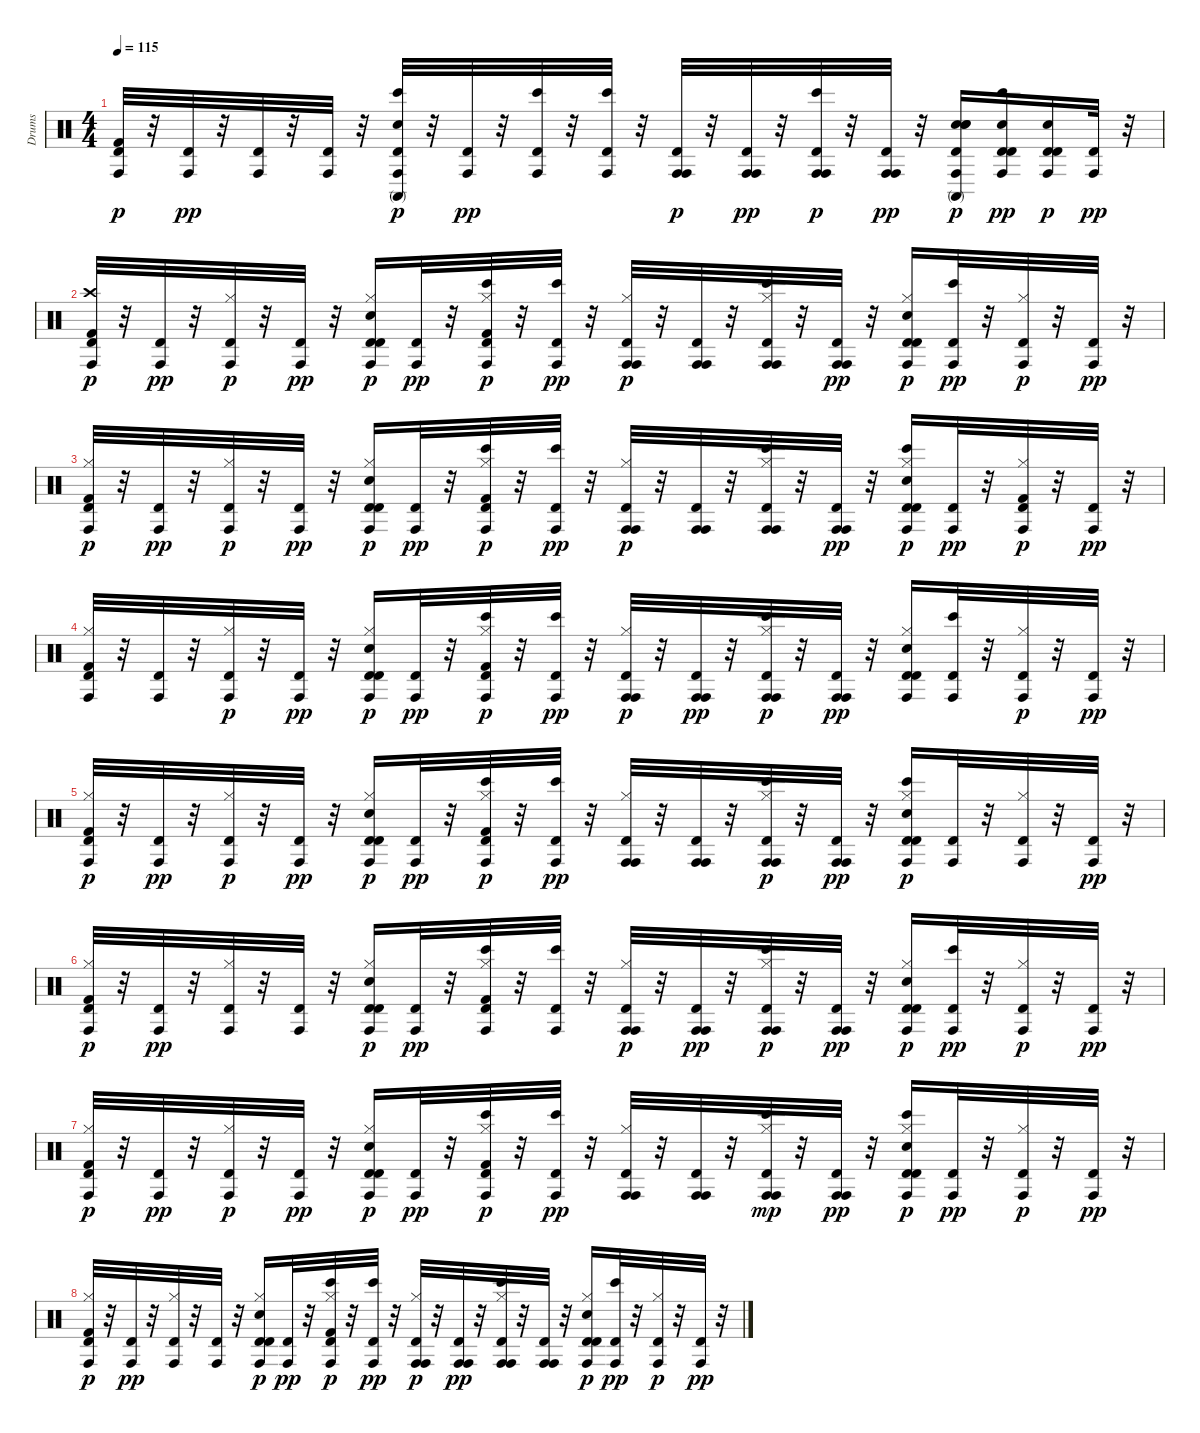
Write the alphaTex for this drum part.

\track ("Drums" "Drums") {instrument percussion}
\staff {score}
\articulation defaults
\ts (4 4)
\tempo 115
\clef neutral
\ks c
("Conga high (hit)" "Kick (hit) 2" "Timbale high (hit)").32{dy p} r.32 ("Conga high (hit)" "Timbale high (hit)").32{dy pp} r.32 ("Conga high (hit)" "Timbale high (hit)").32 r.32 ("Conga high (hit)" "Timbale high (hit)").32 r.32 ("Conga high (hit)" "Hand Clap (hit)" "Conga high (mute)" "Bongo High (hit)" "Timbale high (hit)").32{dy p} r.32 ("Conga high (hit)" "Timbale high (hit)").32{dy pp} r.32 ("Conga high (hit)" "Bongo High (hit)" "Timbale high (hit)").32 r.32 ("Conga high (hit)" "Bongo High (hit)" "Timbale high (hit)").32 r.32 ("Conga high (hit)" "Conga high (hit)" "Timbale high (hit)").32{dy p} r.32 ("Conga high (hit)" "Conga high (hit)" "Timbale high (hit)").32{dy pp} r.32 ("Conga high (hit)" "Conga high (hit)" "Bongo High (hit)" "Timbale high (hit)").32{dy p} r.32 ("Conga high (hit)" "Conga high (hit)" "Timbale high (hit)").32{dy pp} r.32 ("Conga high (hit)" "Timbale high (hit)" "Hand Clap (hit)" "Conga high (mute)" "Electric Snare (hit)" "Hand Clap (hit)").16{dy p} ("Conga high (hit)" "Timbale high (hit)" "Bongo High (hit)" "Electric Snare (hit)" "Timbale high (hit)").16{dy pp} ("Conga high (hit)" "Timbale high (hit)" "Electric Snare (hit)" "Timbale high (hit)").16{dy p} ("Conga high (hit)" "Timbale high (hit)").32{dy pp} r.32 |
("Conga high (hit)" "Crash high (hit)" "Kick (hit) 2" "Timbale high (hit)").32{dy p} r.32 ("Conga high (hit)" "Timbale high (hit)").32{dy pp} r.32 ("Conga high (hit)" "Hi-Hat (closed)" "Timbale high (hit)").32{dy p} r.32 ("Conga high (hit)" "Timbale high (hit)").32{dy pp} r.32 ("Conga high (hit)" "Timbale high (hit)" "Hi-Hat (closed)" "Electric Snare (hit)" "Timbale high (hit)").16{dy p} ("Conga high (hit)" "Timbale high (hit)").32{dy pp} r.32 ("Conga high (hit)" "Bongo High (hit)" "Hi-Hat (closed)" "Kick (hit) 2" "Timbale high (hit)").32{dy p} r.32 ("Conga high (hit)" "Bongo High (hit)" "Timbale high (hit)").32{dy pp} r.32 ("Conga high (hit)" "Conga high (hit)" "Hi-Hat (closed)" "Timbale high (hit)").32{dy p} r.32 ("Conga high (hit)" "Conga high (hit)" "Timbale high (hit)").32 r.32 ("Conga high (hit)" "Conga high (hit)" "Bongo High (hit)" "Hi-Hat (closed)" "Timbale high (hit)").32 r.32 ("Conga high (hit)" "Conga high (hit)" "Timbale high (hit)").32{dy pp} r.32 ("Conga high (hit)" "Timbale high (hit)" "Hi-Hat (closed)" "Electric Snare (hit)" "Timbale high (hit)").16{dy p} ("Conga high (hit)" "Bongo High (hit)" "Timbale high (hit)").32{dy pp} r.32 ("Conga high (hit)" "Hi-Hat (closed)" "Timbale high (hit)").32{dy p} r.32 ("Conga high (hit)" "Timbale high (hit)").32{dy pp} r.32 |
("Conga high (hit)" "Hi-Hat (closed)" "Kick (hit) 2" "Timbale high (hit)").32{dy p} r.32 ("Conga high (hit)" "Timbale high (hit)").32{dy pp} r.32 ("Conga high (hit)" "Hi-Hat (closed)" "Timbale high (hit)").32{dy p} r.32 ("Conga high (hit)" "Timbale high (hit)").32{dy pp} r.32 ("Conga high (hit)" "Timbale high (hit)" "Hi-Hat (closed)" "Electric Snare (hit)" "Timbale high (hit)").16{dy p} ("Conga high (hit)" "Timbale high (hit)").32{dy pp} r.32 ("Conga high (hit)" "Bongo High (hit)" "Hi-Hat (closed)" "Kick (hit) 2" "Timbale high (hit)").32{dy p} r.32 ("Conga high (hit)" "Bongo High (hit)" "Timbale high (hit)").32{dy pp} r.32 ("Conga high (hit)" "Conga high (hit)" "Hi-Hat (closed)" "Timbale high (hit)").32{dy p} r.32 ("Conga high (hit)" "Conga high (hit)" "Timbale high (hit)").32 r.32 ("Conga high (hit)" "Conga high (hit)" "Bongo High (hit)" "Hi-Hat (closed)" "Timbale high (hit)").32 r.32 ("Conga high (hit)" "Conga high (hit)" "Timbale high (hit)").32{dy pp} r.32 ("Conga high (hit)" "Bongo High (hit)" "Timbale high (hit)" "Hi-Hat (closed)" "Electric Snare (hit)" "Timbale high (hit)").16{dy p} ("Conga high (hit)" "Timbale high (hit)").32{dy pp} r.32 ("Conga high (hit)" "Kick (hit) 2" "Hi-Hat (closed)" "Timbale high (hit)").32{dy p} r.32 ("Conga high (hit)" "Timbale high (hit)").32{dy pp} r.32 |
("Conga high (hit)" "Hi-Hat (closed)" "Kick (hit) 2" "Timbale high (hit)").32 r.32 ("Conga high (hit)" "Timbale high (hit)").32 r.32 ("Conga high (hit)" "Hi-Hat (closed)" "Timbale high (hit)").32{dy p} r.32 ("Conga high (hit)" "Timbale high (hit)").32{dy pp} r.32 ("Conga high (hit)" "Timbale high (hit)" "Hi-Hat (closed)" "Electric Snare (hit)" "Timbale high (hit)").16{dy p} ("Conga high (hit)" "Timbale high (hit)").32{dy pp} r.32 ("Conga high (hit)" "Bongo High (hit)" "Hi-Hat (closed)" "Kick (hit) 2" "Timbale high (hit)").32{dy p} r.32 ("Conga high (hit)" "Bongo High (hit)" "Timbale high (hit)").32{dy pp} r.32 ("Conga high (hit)" "Conga high (hit)" "Hi-Hat (closed)" "Timbale high (hit)").32{dy p} r.32 ("Conga high (hit)" "Conga high (hit)" "Timbale high (hit)").32{dy pp} r.32 ("Conga high (hit)" "Conga high (hit)" "Bongo High (hit)" "Hi-Hat (closed)" "Timbale high (hit)").32{dy p} r.32 ("Conga high (hit)" "Conga high (hit)" "Timbale high (hit)").32{dy pp} r.32 ("Conga high (hit)" "Timbale high (hit)" "Hi-Hat (closed)" "Electric Snare (hit)" "Timbale high (hit)").16 ("Conga high (hit)" "Bongo High (hit)" "Timbale high (hit)").32 r.32 ("Conga high (hit)" "Hi-Hat (closed)" "Timbale high (hit)").32{dy p} r.32 ("Conga high (hit)" "Timbale high (hit)").32{dy pp} r.32 |
("Conga high (hit)" "Hi-Hat (closed)" "Kick (hit) 2" "Timbale high (hit)").32{dy p} r.32 ("Conga high (hit)" "Timbale high (hit)").32{dy pp} r.32 ("Conga high (hit)" "Hi-Hat (closed)" "Timbale high (hit)").32{dy p} r.32 ("Conga high (hit)" "Timbale high (hit)").32{dy pp} r.32 ("Conga high (hit)" "Timbale high (hit)" "Hi-Hat (closed)" "Electric Snare (hit)" "Timbale high (hit)").16{dy p} ("Conga high (hit)" "Timbale high (hit)").32{dy pp} r.32 ("Conga high (hit)" "Bongo High (hit)" "Hi-Hat (closed)" "Kick (hit) 2" "Timbale high (hit)").32{dy p} r.32 ("Conga high (hit)" "Bongo High (hit)" "Timbale high (hit)").32{dy pp} r.32 ("Conga high (hit)" "Conga high (hit)" "Hi-Hat (closed)" "Timbale high (hit)").32 r.32 ("Conga high (hit)" "Conga high (hit)" "Timbale high (hit)").32 r.32 ("Conga high (hit)" "Conga high (hit)" "Bongo High (hit)" "Hi-Hat (closed)" "Timbale high (hit)").32{dy p} r.32 ("Conga high (hit)" "Conga high (hit)" "Timbale high (hit)").32{dy pp} r.32 ("Conga high (hit)" "Bongo High (hit)" "Timbale high (hit)" "Hi-Hat (closed)" "Electric Snare (hit)" "Timbale high (hit)").16{dy p} ("Conga high (hit)" "Timbale high (hit)").32 r.32 ("Conga high (hit)" "Hi-Hat (closed)" "Timbale high (hit)").32 r.32 ("Conga high (hit)" "Timbale high (hit)").32{dy pp} r.32 |
("Conga high (hit)" "Hi-Hat (closed)" "Kick (hit) 2" "Timbale high (hit)").32{dy p} r.32 ("Conga high (hit)" "Timbale high (hit)").32{dy pp} r.32 ("Conga high (hit)" "Hi-Hat (closed)" "Timbale high (hit)").32 r.32 ("Conga high (hit)" "Timbale high (hit)").32 r.32 ("Conga high (hit)" "Timbale high (hit)" "Hi-Hat (closed)" "Electric Snare (hit)" "Timbale high (hit)").16{dy p} ("Conga high (hit)" "Timbale high (hit)").32{dy pp} r.32 ("Conga high (hit)" "Bongo High (hit)" "Hi-Hat (closed)" "Kick (hit) 2" "Timbale high (hit)").32 r.32 ("Conga high (hit)" "Bongo High (hit)" "Timbale high (hit)").32 r.32 ("Conga high (hit)" "Conga high (hit)" "Hi-Hat (closed)" "Timbale high (hit)").32{dy p} r.32 ("Conga high (hit)" "Conga high (hit)" "Timbale high (hit)").32{dy pp} r.32 ("Conga high (hit)" "Conga high (hit)" "Bongo High (hit)" "Hi-Hat (closed)" "Timbale high (hit)").32{dy p} r.32 ("Conga high (hit)" "Conga high (hit)" "Timbale high (hit)").32{dy pp} r.32 ("Conga high (hit)" "Timbale high (hit)" "Hi-Hat (closed)" "Electric Snare (hit)" "Timbale high (hit)").16{dy p} ("Conga high (hit)" "Bongo High (hit)" "Timbale high (hit)").32{dy pp} r.32 ("Conga high (hit)" "Hi-Hat (closed)" "Timbale high (hit)").32{dy p} r.32 ("Conga high (hit)" "Timbale high (hit)").32{dy pp} r.32 |
("Conga high (hit)" "Hi-Hat (closed)" "Kick (hit) 2" "Timbale high (hit)").32{dy p} r.32 ("Conga high (hit)" "Timbale high (hit)").32{dy pp} r.32 ("Conga high (hit)" "Hi-Hat (closed)" "Timbale high (hit)").32{dy p} r.32 ("Conga high (hit)" "Timbale high (hit)").32{dy pp} r.32 ("Conga high (hit)" "Timbale high (hit)" "Hi-Hat (closed)" "Electric Snare (hit)" "Timbale high (hit)").16{dy p} ("Conga high (hit)" "Timbale high (hit)").32{dy pp} r.32 ("Conga high (hit)" "Bongo High (hit)" "Hi-Hat (closed)" "Kick (hit) 2" "Timbale high (hit)").32{dy p} r.32 ("Conga high (hit)" "Bongo High (hit)" "Timbale high (hit)").32{dy pp} r.32 ("Conga high (hit)" "Conga high (hit)" "Hi-Hat (closed)" "Timbale high (hit)").32 r.32 ("Conga high (hit)" "Conga high (hit)" "Timbale high (hit)").32 r.32 ("Conga high (hit)" "Conga high (hit)" "Bongo High (hit)" "Hi-Hat (closed)" "Timbale high (hit)").32{dy mp} r.32 ("Conga high (hit)" "Conga high (hit)" "Timbale high (hit)").32{dy pp} r.32 ("Conga high (hit)" "Bongo High (hit)" "Timbale high (hit)" "Hi-Hat (closed)" "Electric Snare (hit)" "Timbale high (hit)").16{dy p} ("Conga high (hit)" "Timbale high (hit)").32{dy pp} r.32 ("Conga high (hit)" "Hi-Hat (closed)" "Timbale high (hit)").32{dy p} r.32 ("Conga high (hit)" "Timbale high (hit)").32{dy pp} r.32 |
("Conga high (hit)" "Hi-Hat (closed)" "Kick (hit) 2" "Timbale high (hit)").32{dy p} r.32 ("Conga high (hit)" "Timbale high (hit)").32{dy pp} r.32 ("Conga high (hit)" "Hi-Hat (closed)" "Timbale high (hit)").32 r.32 ("Conga high (hit)" "Timbale high (hit)").32 r.32 ("Conga high (hit)" "Timbale high (hit)" "Hi-Hat (closed)" "Electric Snare (hit)" "Timbale high (hit)").16{dy p} ("Conga high (hit)" "Timbale high (hit)").32{dy pp} r.32 ("Conga high (hit)" "Bongo High (hit)" "Hi-Hat (closed)" "Kick (hit) 2" "Timbale high (hit)").32{dy p} r.32 ("Conga high (hit)" "Bongo High (hit)" "Timbale high (hit)").32{dy pp} r.32 ("Conga high (hit)" "Conga high (hit)" "Hi-Hat (closed)" "Timbale high (hit)").32{dy p} r.32 ("Conga high (hit)" "Conga high (hit)" "Timbale high (hit)").32{dy pp} r.32 ("Conga high (hit)" "Conga high (hit)" "Bongo High (hit)" "Hi-Hat (closed)" "Timbale high (hit)").32 r.32 ("Conga high (hit)" "Conga high (hit)" "Timbale high (hit)").32 r.32 ("Conga high (hit)" "Timbale high (hit)" "Hi-Hat (closed)" "Electric Snare (hit)" "Timbale high (hit)").16{dy p} ("Conga high (hit)" "Bongo High (hit)" "Timbale high (hit)").32{dy pp} r.32 ("Conga high (hit)" "Hi-Hat (closed)" "Timbale high (hit)").32{dy p} r.32 ("Conga high (hit)" "Timbale high (hit)").32{dy pp} r.32
